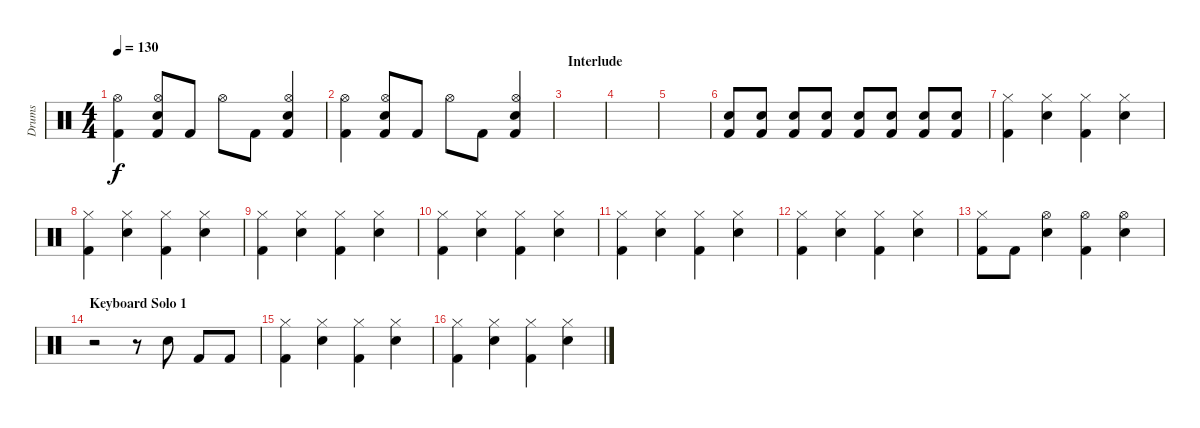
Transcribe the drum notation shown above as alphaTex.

\track ("Drums" "Drums") {instrument percussion}
\staff {score}
\articulation defaults
\ts (4 4)
\tempo 130
\clef neutral
\ks c
("Kick (hit) 2" "Hi-Hat (open)").4{dy f} ("Kick (hit) 2" "Hi-Hat (open)" "Snare (hit) 2").8 "Kick (hit) 2".8 "Hi-Hat (open)".8 "Kick (hit) 2".8 ("Kick (hit) 2" "Hi-Hat (open)" "Snare (hit) 2").4 |
("Kick (hit) 2" "Hi-Hat (open)").4 ("Kick (hit) 2" "Hi-Hat (open)" "Snare (hit) 2").8 "Kick (hit) 2".8 "Hi-Hat (open)".8 "Kick (hit) 2".8 ("Kick (hit) 2" "Hi-Hat (open)" "Snare (hit) 2").4 |
\section ("" "Interlude")
|
|
|
("Kick (hit) 2" "Snare (hit) 2").8 ("Kick (hit) 2" "Snare (hit) 2").8 ("Kick (hit) 2" "Snare (hit) 2").8 ("Kick (hit) 2" "Snare (hit) 2").8 ("Kick (hit) 2" "Snare (hit) 2").8 ("Kick (hit) 2" "Snare (hit) 2").8 ("Kick (hit) 2" "Snare (hit) 2").8 ("Kick (hit) 2" "Snare (hit) 2").8 |
("Kick (hit) 2" "Hi-Hat (closed)").4 ("Hi-Hat (closed)" "Snare (hit) 2").4 ("Kick (hit) 2" "Hi-Hat (closed)").4 ("Hi-Hat (closed)" "Snare (hit) 2").4 |
("Kick (hit) 2" "Hi-Hat (closed)").4 ("Hi-Hat (closed)" "Snare (hit) 2").4 ("Kick (hit) 2" "Hi-Hat (closed)").4 ("Hi-Hat (closed)" "Snare (hit) 2").4 |
("Kick (hit) 2" "Hi-Hat (closed)").4 ("Hi-Hat (closed)" "Snare (hit) 2").4 ("Kick (hit) 2" "Hi-Hat (closed)").4 ("Hi-Hat (closed)" "Snare (hit) 2").4 |
("Kick (hit) 2" "Hi-Hat (closed)").4 ("Hi-Hat (closed)" "Snare (hit) 2").4 ("Kick (hit) 2" "Hi-Hat (closed)").4 ("Hi-Hat (closed)" "Snare (hit) 2").4 |
("Kick (hit) 2" "Hi-Hat (closed)").4 ("Hi-Hat (closed)" "Snare (hit) 2").4 ("Kick (hit) 2" "Hi-Hat (closed)").4 ("Hi-Hat (closed)" "Snare (hit) 2").4 |
("Kick (hit) 2" "Hi-Hat (closed)").4 ("Hi-Hat (closed)" "Snare (hit) 2").4 ("Kick (hit) 2" "Hi-Hat (closed)").4 ("Hi-Hat (closed)" "Snare (hit) 2").4 |
("Kick (hit) 2" "Hi-Hat (closed)").8 "Kick (hit) 2".8 ("Hi-Hat (open)" "Snare (hit) 2").4 ("Kick (hit) 2" "Hi-Hat (open)").4 ("Hi-Hat (open)" "Snare (hit) 2").4 |
\section ("" "Keyboard Solo 1")
r.2 r.8 "Snare (hit) 2".8 "Kick (hit) 2".8 "Kick (hit) 2".8 |
("Kick (hit) 2" "Hi-Hat (closed)").4 ("Hi-Hat (closed)" "Snare (hit) 2").4 ("Kick (hit) 2" "Hi-Hat (closed)").4 ("Hi-Hat (closed)" "Snare (hit) 2").4 |
("Kick (hit) 2" "Hi-Hat (closed)").4 ("Hi-Hat (closed)" "Snare (hit) 2").4 ("Kick (hit) 2" "Hi-Hat (closed)").4 ("Hi-Hat (closed)" "Snare (hit) 2").4
